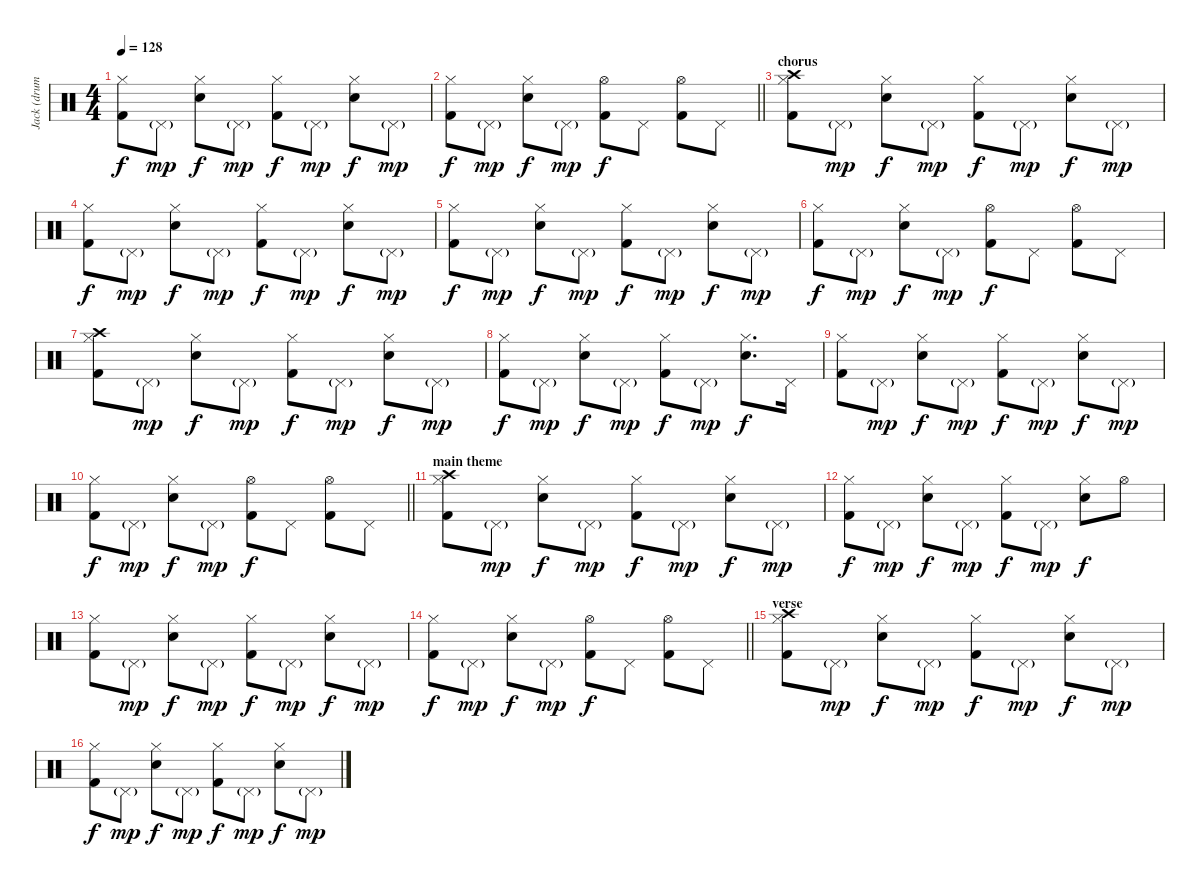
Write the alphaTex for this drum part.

\track ("Jack (drums)" "Jack (drum") {instrument percussion}
\staff {score}
\articulation defaults
\ts (4 4)
\tempo 128
\clef neutral
\ks c
("Hi-Hat (closed)" "Kick (hit) 2").8{dy f} "Pedal Hi-Hat (hit)"{g}.8{dy mp} ("Hi-Hat (closed)" "Snare (hit) 2").8{dy f} "Pedal Hi-Hat (hit)"{g}.8{dy mp} ("Hi-Hat (closed)" "Kick (hit) 2").8{dy f} "Pedal Hi-Hat (hit)"{g}.8{dy mp} ("Hi-Hat (closed)" "Snare (hit) 2").8{dy f} "Pedal Hi-Hat (hit)"{g}.8{dy mp} |
\barLineRight lightlight
("Hi-Hat (closed)" "Kick (hit) 2").8{dy f} "Pedal Hi-Hat (hit)"{g}.8{dy mp} ("Hi-Hat (closed)" "Snare (hit) 2").8{dy f} "Pedal Hi-Hat (hit)"{g}.8{dy mp} ("Hi-Hat (open)" "Kick (hit) 2").8{dy f} "Pedal Hi-Hat (hit)".8 ("Hi-Hat (open)" "Kick (hit) 2").8 "Pedal Hi-Hat (hit)".8 |
\section ("" "chorus")
("Hi-Hat (closed)" "Crash high (hit)" "Kick (hit) 2").8 "Pedal Hi-Hat (hit)"{g}.8{dy mp} ("Hi-Hat (closed)" "Snare (hit) 2").8{dy f} "Pedal Hi-Hat (hit)"{g}.8{dy mp} ("Hi-Hat (closed)" "Kick (hit) 2").8{dy f} "Pedal Hi-Hat (hit)"{g}.8{dy mp} ("Hi-Hat (closed)" "Snare (hit) 2").8{dy f} "Pedal Hi-Hat (hit)"{g}.8{dy mp} |
("Hi-Hat (closed)" "Kick (hit) 2").8{dy f} "Pedal Hi-Hat (hit)"{g}.8{dy mp} ("Hi-Hat (closed)" "Snare (hit) 2").8{dy f} "Pedal Hi-Hat (hit)"{g}.8{dy mp} ("Hi-Hat (closed)" "Kick (hit) 2").8{dy f} "Pedal Hi-Hat (hit)"{g}.8{dy mp} ("Hi-Hat (closed)" "Snare (hit) 2").8{dy f} "Pedal Hi-Hat (hit)"{g}.8{dy mp} |
("Hi-Hat (closed)" "Kick (hit) 2").8{dy f} "Pedal Hi-Hat (hit)"{g}.8{dy mp} ("Hi-Hat (closed)" "Snare (hit) 2").8{dy f} "Pedal Hi-Hat (hit)"{g}.8{dy mp} ("Hi-Hat (closed)" "Kick (hit) 2").8{dy f} "Pedal Hi-Hat (hit)"{g}.8{dy mp} ("Hi-Hat (closed)" "Snare (hit) 2").8{dy f} "Pedal Hi-Hat (hit)"{g}.8{dy mp} |
("Hi-Hat (closed)" "Kick (hit) 2").8{dy f} "Pedal Hi-Hat (hit)"{g}.8{dy mp} ("Hi-Hat (closed)" "Snare (hit) 2").8{dy f} "Pedal Hi-Hat (hit)"{g}.8{dy mp} ("Hi-Hat (open)" "Kick (hit) 2").8{dy f} "Pedal Hi-Hat (hit)".8 ("Hi-Hat (open)" "Kick (hit) 2").8 "Pedal Hi-Hat (hit)".8 |
("Hi-Hat (closed)" "Crash high (hit)" "Kick (hit) 2").8 "Pedal Hi-Hat (hit)"{g}.8{dy mp} ("Hi-Hat (closed)" "Snare (hit) 2").8{dy f} "Pedal Hi-Hat (hit)"{g}.8{dy mp} ("Hi-Hat (closed)" "Kick (hit) 2").8{dy f} "Pedal Hi-Hat (hit)"{g}.8{dy mp} ("Hi-Hat (closed)" "Snare (hit) 2").8{dy f} "Pedal Hi-Hat (hit)"{g}.8{dy mp} |
("Hi-Hat (closed)" "Kick (hit) 2").8{dy f} "Pedal Hi-Hat (hit)"{g}.8{dy mp} ("Hi-Hat (closed)" "Snare (hit) 2").8{dy f} "Pedal Hi-Hat (hit)"{g}.8{dy mp} ("Hi-Hat (closed)" "Kick (hit) 2").8{dy f} "Pedal Hi-Hat (hit)"{g}.8{dy mp} ("Hi-Hat (closed)" "Snare (hit) 2").8{d dy f} "Pedal Hi-Hat (hit)".16 |
("Hi-Hat (closed)" "Kick (hit) 2").8 "Pedal Hi-Hat (hit)"{g}.8{dy mp} ("Hi-Hat (closed)" "Snare (hit) 2").8{dy f} "Pedal Hi-Hat (hit)"{g}.8{dy mp} ("Hi-Hat (closed)" "Kick (hit) 2").8{dy f} "Pedal Hi-Hat (hit)"{g}.8{dy mp} ("Hi-Hat (closed)" "Snare (hit) 2").8{dy f} "Pedal Hi-Hat (hit)"{g}.8{dy mp} |
\barLineRight lightlight
("Hi-Hat (closed)" "Kick (hit) 2").8{dy f} "Pedal Hi-Hat (hit)"{g}.8{dy mp} ("Hi-Hat (closed)" "Snare (hit) 2").8{dy f} "Pedal Hi-Hat (hit)"{g}.8{dy mp} ("Hi-Hat (open)" "Kick (hit) 2").8{dy f} "Pedal Hi-Hat (hit)".8 ("Hi-Hat (open)" "Kick (hit) 2").8 "Pedal Hi-Hat (hit)".8 |
\section ("" "main theme")
("Hi-Hat (closed)" "Crash high (hit)" "Kick (hit) 2").8 "Pedal Hi-Hat (hit)"{g}.8{dy mp} ("Hi-Hat (closed)" "Snare (hit) 2").8{dy f} "Pedal Hi-Hat (hit)"{g}.8{dy mp} ("Hi-Hat (closed)" "Kick (hit) 2").8{dy f} "Pedal Hi-Hat (hit)"{g}.8{dy mp} ("Hi-Hat (closed)" "Snare (hit) 2").8{dy f} "Pedal Hi-Hat (hit)"{g}.8{dy mp} |
("Hi-Hat (closed)" "Kick (hit) 2").8{dy f} "Pedal Hi-Hat (hit)"{g}.8{dy mp} ("Hi-Hat (closed)" "Snare (hit) 2").8{dy f} "Pedal Hi-Hat (hit)"{g}.8{dy mp} ("Hi-Hat (closed)" "Kick (hit) 2").8{dy f} "Pedal Hi-Hat (hit)"{g}.8{dy mp} ("Hi-Hat (closed)" "Snare (hit) 2").8{dy f} "Hi-Hat (open)".8 |
("Hi-Hat (closed)" "Kick (hit) 2").8 "Pedal Hi-Hat (hit)"{g}.8{dy mp} ("Hi-Hat (closed)" "Snare (hit) 2").8{dy f} "Pedal Hi-Hat (hit)"{g}.8{dy mp} ("Hi-Hat (closed)" "Kick (hit) 2").8{dy f} "Pedal Hi-Hat (hit)"{g}.8{dy mp} ("Hi-Hat (closed)" "Snare (hit) 2").8{dy f} "Pedal Hi-Hat (hit)"{g}.8{dy mp} |
\barLineRight lightlight
("Hi-Hat (closed)" "Kick (hit) 2").8{dy f} "Pedal Hi-Hat (hit)"{g}.8{dy mp} ("Hi-Hat (closed)" "Snare (hit) 2").8{dy f} "Pedal Hi-Hat (hit)"{g}.8{dy mp} ("Hi-Hat (open)" "Kick (hit) 2").8{dy f} "Pedal Hi-Hat (hit)".8 ("Hi-Hat (open)" "Kick (hit) 2").8 "Pedal Hi-Hat (hit)".8 |
\section ("" "verse")
("Hi-Hat (closed)" "Crash high (hit)" "Kick (hit) 2").8 "Pedal Hi-Hat (hit)"{g}.8{dy mp} ("Hi-Hat (closed)" "Snare (hit) 2").8{dy f} "Pedal Hi-Hat (hit)"{g}.8{dy mp} ("Hi-Hat (closed)" "Kick (hit) 2").8{dy f} "Pedal Hi-Hat (hit)"{g}.8{dy mp} ("Hi-Hat (closed)" "Snare (hit) 2").8{dy f} "Pedal Hi-Hat (hit)"{g}.8{dy mp} |
("Hi-Hat (closed)" "Kick (hit) 2").8{dy f} "Pedal Hi-Hat (hit)"{g}.8{dy mp} ("Hi-Hat (closed)" "Snare (hit) 2").8{dy f} "Pedal Hi-Hat (hit)"{g}.8{dy mp} ("Hi-Hat (closed)" "Kick (hit) 2").8{dy f} "Pedal Hi-Hat (hit)"{g}.8{dy mp} ("Hi-Hat (closed)" "Snare (hit) 2").8{dy f} "Pedal Hi-Hat (hit)"{g}.8{dy mp}
